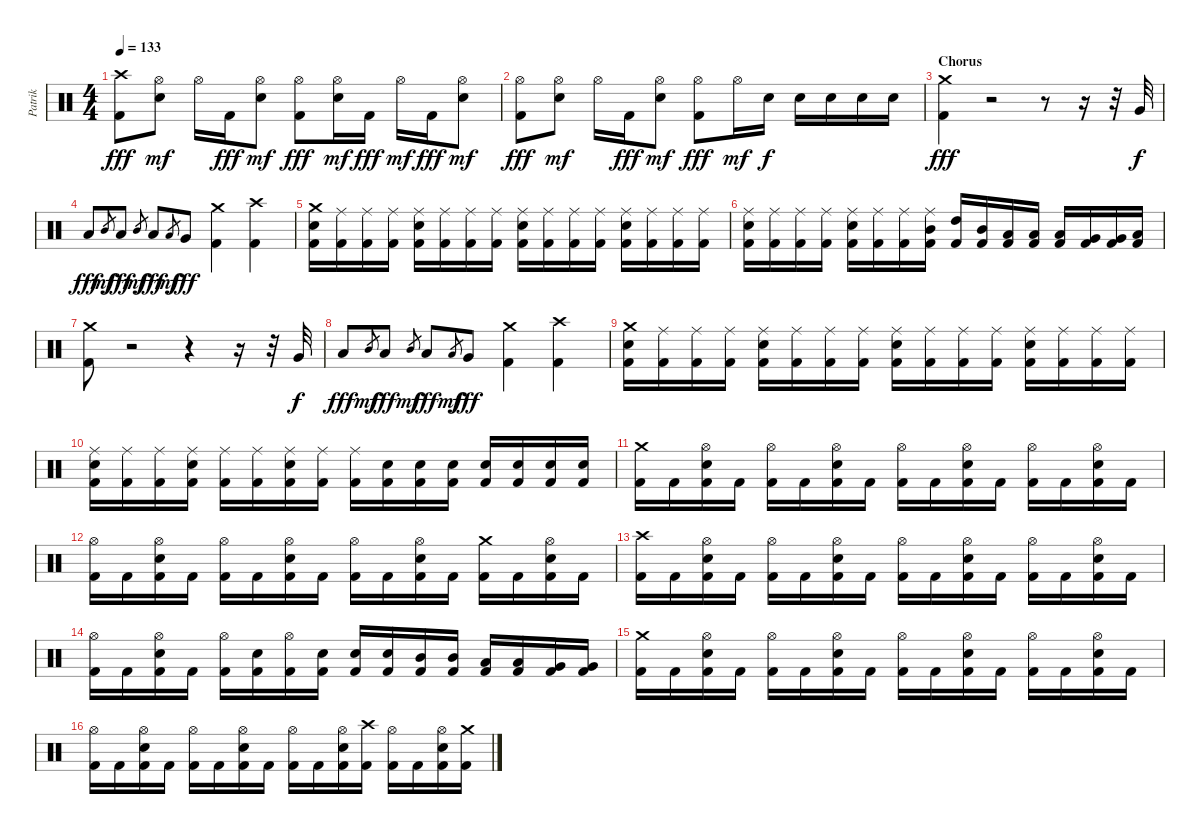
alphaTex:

\track ("Patrik" "Patrik") {instrument percussion}
\staff {score}
\articulation defaults
\ts (4 4)
\tempo 133
\clef neutral
\ks c
("Crash high (hit)" "Kick (hit) 2").8{dy fff} ("Hi-Hat (open)" "Electric Snare (hit)").8{dy mf} "Hi-Hat (open)".16 "Kick (hit) 2".16{dy fff} ("Hi-Hat (open)" "Electric Snare (hit)").8{dy mf} ("Hi-Hat (open)" "Kick (hit) 2").8{dy fff} ("Hi-Hat (open)" "Electric Snare (hit)").16{dy mf} "Kick (hit) 2".16{dy fff} "Hi-Hat (open)".16{dy mf} "Kick (hit) 2".16{dy fff} ("Hi-Hat (open)" "Electric Snare (hit)").8{dy mf} |
("Hi-Hat (open)" "Kick (hit) 2").8{dy fff} ("Hi-Hat (open)" "Electric Snare (hit)").8{dy mf} "Hi-Hat (open)".16 "Kick (hit) 2".16{dy fff} ("Hi-Hat (open)" "Electric Snare (hit)").8{dy mf} ("Hi-Hat (open)" "Kick (hit) 2").8{dy fff} "Hi-Hat (open)".16{dy mf} "Electric Snare (hit)".16{dy f} "Electric Snare (hit)".16 "Electric Snare (hit)".16 "Electric Snare (hit)".16 "Electric Snare (hit)".16 |
\section ("" "Chorus")
("Crash medium (hit)" "Kick (hit) 2").4{dy fff} r.2{volume 0} r.8 r.16 r.32 "Very Low Tom (hit)".32{dy f volume 14} |
"Low Tom (hit)".8{dy fff} "Mid Tom (hit)".8{gr dy mf} "Low Tom (hit)".8{dy fff} "Mid Tom (hit)".8{gr dy mf} "Low Tom (hit)".8{dy fff} "Low Tom (hit)".8{gr dy mf} "Very Low Tom (hit)".8{dy fff} ("Crash medium (hit)" "Kick (hit) 2").4 ("Crash high (hit)" "Kick (hit) 2").4 |
("Crash medium (hit)" "Electric Snare (hit)" "Kick (hit) 2").16 ("Ride (middle)" "Kick (hit) 2").16 ("Ride (middle)" "Kick (hit) 2").16 ("Ride (middle)" "Kick (hit) 2").16 ("Ride (middle)" "Electric Snare (hit)" "Kick (hit) 2").16 ("Ride (middle)" "Kick (hit) 2").16 ("Ride (middle)" "Kick (hit) 2").16 ("Ride (middle)" "Kick (hit) 2").16 ("Ride (middle)" "Electric Snare (hit)" "Kick (hit) 2").16 ("Ride (middle)" "Kick (hit) 2").16 ("Ride (middle)" "Kick (hit) 2").16 ("Ride (middle)" "Kick (hit) 2").16 ("Ride (middle)" "Electric Snare (hit)" "Kick (hit) 2").16 ("Ride (middle)" "Kick (hit) 2").16 ("Ride (middle)" "Kick (hit) 2").16 ("Ride (middle)" "Kick (hit) 2").16 |
("Ride (middle)" "Electric Snare (hit)" "Kick (hit) 2").16 ("Ride (middle)" "Kick (hit) 2").16 ("Ride (middle)" "Kick (hit) 2").16 ("Ride (middle)" "Kick (hit) 2").16 ("Ride (middle)" "Electric Snare (hit)" "Kick (hit) 2").16 ("Ride (middle)" "Kick (hit) 2").16 ("Ride (middle)" "Kick (hit) 2").16 ("Ride (middle)" "Mid Tom (hit)" "Kick (hit) 2").16 ("High Tom (hit)" "Kick (hit) 2").16 ("Mid Tom (hit)" "Kick (hit) 2").16 ("Low Tom (hit)" "Kick (hit) 2").16 ("Low Tom (hit)" "Kick (hit) 2").16 ("Low Tom (hit)" "Kick (hit) 2").16 ("Very Low Tom (hit)" "Kick (hit) 2").16 ("Very Low Tom (hit)" "Kick (hit) 2").16 ("Low Floor Tom (hit)" "Kick (hit) 2").16 |
("Crash medium (hit)" "Kick (hit) 2").8 r.2{volume 0} r.4 r.16 r.32 "Very Low Tom (hit)".32{dy f volume 14} |
"Low Tom (hit)".8{dy fff} "Mid Tom (hit)".8{gr dy mf} "Low Tom (hit)".8{dy fff} "Mid Tom (hit)".8{gr dy mf} "Low Tom (hit)".8{dy fff} "Low Tom (hit)".8{gr dy mf} "Very Low Tom (hit)".8{dy fff} ("Crash medium (hit)" "Kick (hit) 2").4 ("Crash high (hit)" "Kick (hit) 2").4 |
("Crash medium (hit)" "Electric Snare (hit)" "Kick (hit) 2").16 ("Ride (middle)" "Kick (hit) 2").16 ("Ride (middle)" "Kick (hit) 2").16 ("Ride (middle)" "Kick (hit) 2").16 ("Ride (middle)" "Electric Snare (hit)" "Kick (hit) 2").16 ("Ride (middle)" "Kick (hit) 2").16 ("Ride (middle)" "Kick (hit) 2").16 ("Ride (middle)" "Kick (hit) 2").16 ("Ride (middle)" "Electric Snare (hit)" "Kick (hit) 2").16 ("Ride (middle)" "Kick (hit) 2").16 ("Ride (middle)" "Kick (hit) 2").16 ("Ride (middle)" "Kick (hit) 2").16 ("Ride (middle)" "Electric Snare (hit)" "Kick (hit) 2").16 ("Ride (middle)" "Kick (hit) 2").16 ("Ride (middle)" "Kick (hit) 2").16 ("Ride (middle)" "Kick (hit) 2").16 |
("Ride (middle)" "Electric Snare (hit)" "Kick (hit) 2").16 ("Ride (middle)" "Kick (hit) 2").16 ("Ride (middle)" "Kick (hit) 2").16 ("Ride (middle)" "Electric Snare (hit)" "Kick (hit) 2").16 ("Ride (middle)" "Kick (hit) 2").16 ("Ride (middle)" "Kick (hit) 2").16 ("Ride (middle)" "Electric Snare (hit)" "Kick (hit) 2").16 ("Ride (middle)" "Kick (hit) 2").16 ("Ride (middle)" "Kick (hit) 2").16 ("Electric Snare (hit)" "Kick (hit) 2").16 ("Electric Snare (hit)" "Kick (hit) 2").16 ("Electric Snare (hit)" "Kick (hit) 2").16 ("Electric Snare (hit)" "Kick (hit) 2").16 ("Electric Snare (hit)" "Kick (hit) 2").16 ("Electric Snare (hit)" "Kick (hit) 2").16 ("Electric Snare (hit)" "Kick (hit) 2").16 |
("Crash medium (hit)" "Kick (hit) 2").16 "Kick (hit) 2".16 ("Hi-Hat (open)" "Electric Snare (hit)" "Kick (hit) 2").16 "Kick (hit) 2".16 ("Hi-Hat (open)" "Kick (hit) 2").16 "Kick (hit) 2".16 ("Hi-Hat (open)" "Electric Snare (hit)" "Kick (hit) 2").16 "Kick (hit) 2".16 ("Hi-Hat (open)" "Kick (hit) 2").16 "Kick (hit) 2".16 ("Hi-Hat (open)" "Electric Snare (hit)" "Kick (hit) 2").16 "Kick (hit) 2".16 ("Hi-Hat (open)" "Kick (hit) 2").16 "Kick (hit) 2".16 ("Hi-Hat (open)" "Electric Snare (hit)" "Kick (hit) 2").16 "Kick (hit) 2".16 |
("Hi-Hat (open)" "Kick (hit) 2").16 "Kick (hit) 2".16 ("Hi-Hat (open)" "Electric Snare (hit)" "Kick (hit) 2").16 "Kick (hit) 2".16 ("Hi-Hat (open)" "Kick (hit) 2").16 "Kick (hit) 2".16 ("Hi-Hat (open)" "Electric Snare (hit)" "Kick (hit) 2").16 "Kick (hit) 2".16 ("Hi-Hat (open)" "Kick (hit) 2").16 "Kick (hit) 2".16 ("Hi-Hat (open)" "Electric Snare (hit)" "Kick (hit) 2").16 "Kick (hit) 2".16 ("Crash medium (hit)" "Kick (hit) 2").16 "Kick (hit) 2".16 ("Hi-Hat (open)" "Electric Snare (hit)" "Kick (hit) 2").16 "Kick (hit) 2".16 |
("Crash high (hit)" "Kick (hit) 2").16 "Kick (hit) 2".16 ("Hi-Hat (open)" "Electric Snare (hit)" "Kick (hit) 2").16 "Kick (hit) 2".16 ("Hi-Hat (open)" "Kick (hit) 2").16 "Kick (hit) 2".16 ("Hi-Hat (open)" "Electric Snare (hit)" "Kick (hit) 2").16 "Kick (hit) 2".16 ("Hi-Hat (open)" "Kick (hit) 2").16 "Kick (hit) 2".16 ("Hi-Hat (open)" "Electric Snare (hit)" "Kick (hit) 2").16 "Kick (hit) 2".16 ("Hi-Hat (open)" "Kick (hit) 2").16 "Kick (hit) 2".16 ("Hi-Hat (open)" "Electric Snare (hit)" "Kick (hit) 2").16 "Kick (hit) 2".16 |
("Hi-Hat (open)" "Kick (hit) 2").16 "Kick (hit) 2".16 ("Hi-Hat (open)" "Electric Snare (hit)" "Kick (hit) 2").16 "Kick (hit) 2".16 ("Hi-Hat (open)" "Kick (hit) 2").16 ("Electric Snare (hit)" "Kick (hit) 2").16 ("Hi-Hat (open)" "Kick (hit) 2").16 ("Electric Snare (hit)" "Kick (hit) 2").16 ("Electric Snare (hit)" "Kick (hit) 2").16 ("Electric Snare (hit)" "Kick (hit) 2").16 ("Mid Tom (hit)" "Kick (hit) 2").16 ("Mid Tom (hit)" "Kick (hit) 2").16 ("Low Tom (hit)" "Kick (hit) 2").16 ("Low Tom (hit)" "Kick (hit) 2").16 ("Very Low Tom (hit)" "Kick (hit) 2").16 ("Very Low Tom (hit)" "Kick (hit) 2").16 |
("Crash medium (hit)" "Kick (hit) 2").16 "Kick (hit) 2".16 ("Hi-Hat (open)" "Electric Snare (hit)" "Kick (hit) 2").16 "Kick (hit) 2".16 ("Hi-Hat (open)" "Kick (hit) 2").16 "Kick (hit) 2".16 ("Hi-Hat (open)" "Electric Snare (hit)" "Kick (hit) 2").16 "Kick (hit) 2".16 ("Hi-Hat (open)" "Kick (hit) 2").16 "Kick (hit) 2".16 ("Hi-Hat (open)" "Electric Snare (hit)" "Kick (hit) 2").16 "Kick (hit) 2".16 ("Hi-Hat (open)" "Kick (hit) 2").16 "Kick (hit) 2".16 ("Hi-Hat (open)" "Electric Snare (hit)" "Kick (hit) 2").16 "Kick (hit) 2".16 |
("Hi-Hat (open)" "Kick (hit) 2").16 "Kick (hit) 2".16 ("Hi-Hat (open)" "Electric Snare (hit)" "Kick (hit) 2").16 "Kick (hit) 2".16 ("Hi-Hat (open)" "Kick (hit) 2").16 "Kick (hit) 2".16 ("Hi-Hat (open)" "Electric Snare (hit)" "Kick (hit) 2").16 "Kick (hit) 2".16 ("Hi-Hat (open)" "Kick (hit) 2").16 "Kick (hit) 2".16 ("Hi-Hat (open)" "Electric Snare (hit)" "Kick (hit) 2").16 ("Crash high (hit)" "Kick (hit) 2").16 ("Hi-Hat (open)" "Kick (hit) 2").16 "Kick (hit) 2".16 ("Hi-Hat (open)" "Electric Snare (hit)" "Kick (hit) 2").16 ("Crash medium (hit)" "Kick (hit) 2").16
